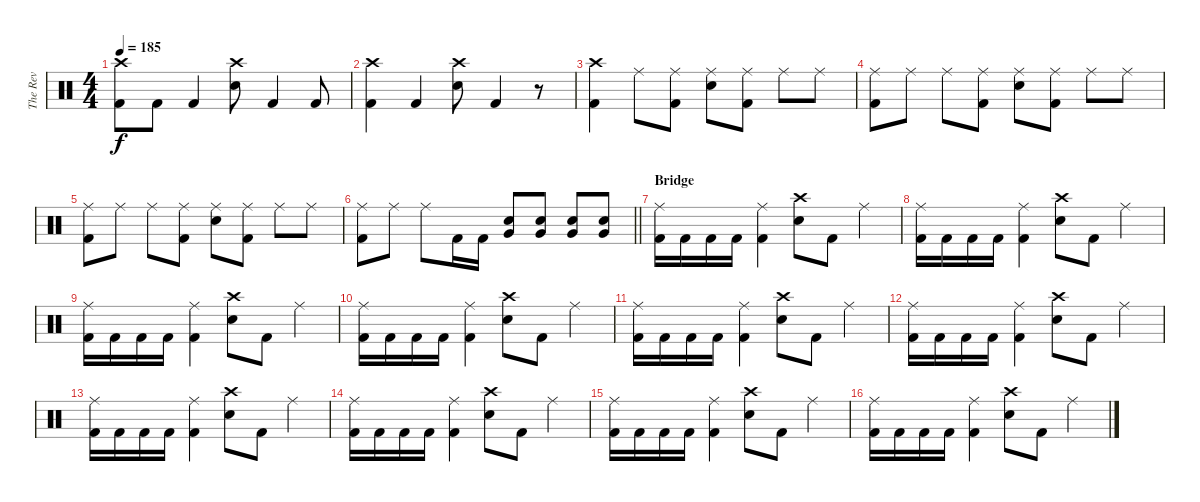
\track ("The Rev" "The Rev") {instrument percussion}
\staff {score}
\articulation defaults
\ts (4 4)
\tempo 185
\clef neutral
\ks c
("Crash high (hit)" "Kick (hit) 2").8{dy f} "Kick (hit) 2".8 "Kick (hit) 2".4 ("Crash high (hit)" "Electric Snare (hit)").8 "Kick (hit) 2".4 "Kick (hit) 2".8 |
("Crash high (hit)" "Kick (hit) 2").4 "Kick (hit) 2".4 ("Crash high (hit)" "Electric Snare (hit)").8 "Kick (hit) 2".4 r.8 |
("Crash high (hit)" "Kick (hit) 2").4 "Ride (middle)".8 ("Ride (middle)" "Kick (hit) 2").8 ("Ride (middle)" "Electric Snare (hit)").8 ("Ride (middle)" "Kick (hit) 2").8 "Ride (middle)".8 "Ride (middle)".8 |
("Ride (middle)" "Kick (hit) 2").8 "Ride (middle)".8 "Ride (middle)".8 ("Ride (middle)" "Kick (hit) 2").8 ("Ride (middle)" "Electric Snare (hit)").8 ("Ride (middle)" "Kick (hit) 2").8 "Ride (middle)".8 "Ride (middle)".8 |
("Ride (middle)" "Kick (hit) 2").8 "Ride (middle)".8 "Ride (middle)".8 ("Ride (middle)" "Kick (hit) 2").8 ("Ride (middle)" "Electric Snare (hit)").8 ("Ride (middle)" "Kick (hit) 2").8 "Ride (middle)".8 "Ride (middle)".8 |
\barLineRight lightlight
("Ride (middle)" "Kick (hit) 2").8 "Ride (middle)".8 "Ride (middle)".8 "Kick (hit) 2".16 "Kick (hit) 2".16 ("Very Low Tom (hit)" "Electric Snare (hit)").8 ("Very Low Tom (hit)" "Electric Snare (hit)").8 ("Very Low Tom (hit)" "Electric Snare (hit)").8 ("Very Low Tom (hit)" "Electric Snare (hit)").8 |
\section ("" "Bridge")
("Ride (middle)" "Kick (hit) 2").16 "Kick (hit) 2".16 "Kick (hit) 2".16 "Kick (hit) 2".16 ("Ride (middle)" "Kick (hit) 2").4 ("Crash high (hit)" "Electric Snare (hit)").8 "Kick (hit) 2".8 "Ride (middle)".4 |
("Ride (middle)" "Kick (hit) 2").16 "Kick (hit) 2".16 "Kick (hit) 2".16 "Kick (hit) 2".16 ("Ride (middle)" "Kick (hit) 2").4 ("Crash high (hit)" "Electric Snare (hit)").8 "Kick (hit) 2".8 "Ride (middle)".4 |
("Ride (middle)" "Kick (hit) 2").16 "Kick (hit) 2".16 "Kick (hit) 2".16 "Kick (hit) 2".16 ("Ride (middle)" "Kick (hit) 2").4 ("Crash high (hit)" "Electric Snare (hit)").8 "Kick (hit) 2".8 "Ride (middle)".4 |
("Ride (middle)" "Kick (hit) 2").16 "Kick (hit) 2".16 "Kick (hit) 2".16 "Kick (hit) 2".16 ("Ride (middle)" "Kick (hit) 2").4 ("Crash high (hit)" "Electric Snare (hit)").8 "Kick (hit) 2".8 "Ride (middle)".4 |
("Ride (middle)" "Kick (hit) 2").16 "Kick (hit) 2".16 "Kick (hit) 2".16 "Kick (hit) 2".16 ("Ride (middle)" "Kick (hit) 2").4 ("Crash high (hit)" "Electric Snare (hit)").8 "Kick (hit) 2".8 "Ride (middle)".4 |
("Ride (middle)" "Kick (hit) 2").16 "Kick (hit) 2".16 "Kick (hit) 2".16 "Kick (hit) 2".16 ("Ride (middle)" "Kick (hit) 2").4 ("Crash high (hit)" "Electric Snare (hit)").8 "Kick (hit) 2".8 "Ride (middle)".4 |
("Ride (middle)" "Kick (hit) 2").16 "Kick (hit) 2".16 "Kick (hit) 2".16 "Kick (hit) 2".16 ("Ride (middle)" "Kick (hit) 2").4 ("Crash high (hit)" "Electric Snare (hit)").8 "Kick (hit) 2".8 "Ride (middle)".4 |
("Ride (middle)" "Kick (hit) 2").16 "Kick (hit) 2".16 "Kick (hit) 2".16 "Kick (hit) 2".16 ("Ride (middle)" "Kick (hit) 2").4 ("Crash high (hit)" "Electric Snare (hit)").8 "Kick (hit) 2".8 "Ride (middle)".4 |
("Ride (middle)" "Kick (hit) 2").16 "Kick (hit) 2".16 "Kick (hit) 2".16 "Kick (hit) 2".16 ("Ride (middle)" "Kick (hit) 2").4 ("Crash high (hit)" "Electric Snare (hit)").8 "Kick (hit) 2".8 "Ride (middle)".4 |
("Ride (middle)" "Kick (hit) 2").16 "Kick (hit) 2".16 "Kick (hit) 2".16 "Kick (hit) 2".16 ("Ride (middle)" "Kick (hit) 2").4 ("Crash high (hit)" "Electric Snare (hit)").8 "Kick (hit) 2".8 "Ride (middle)".4
